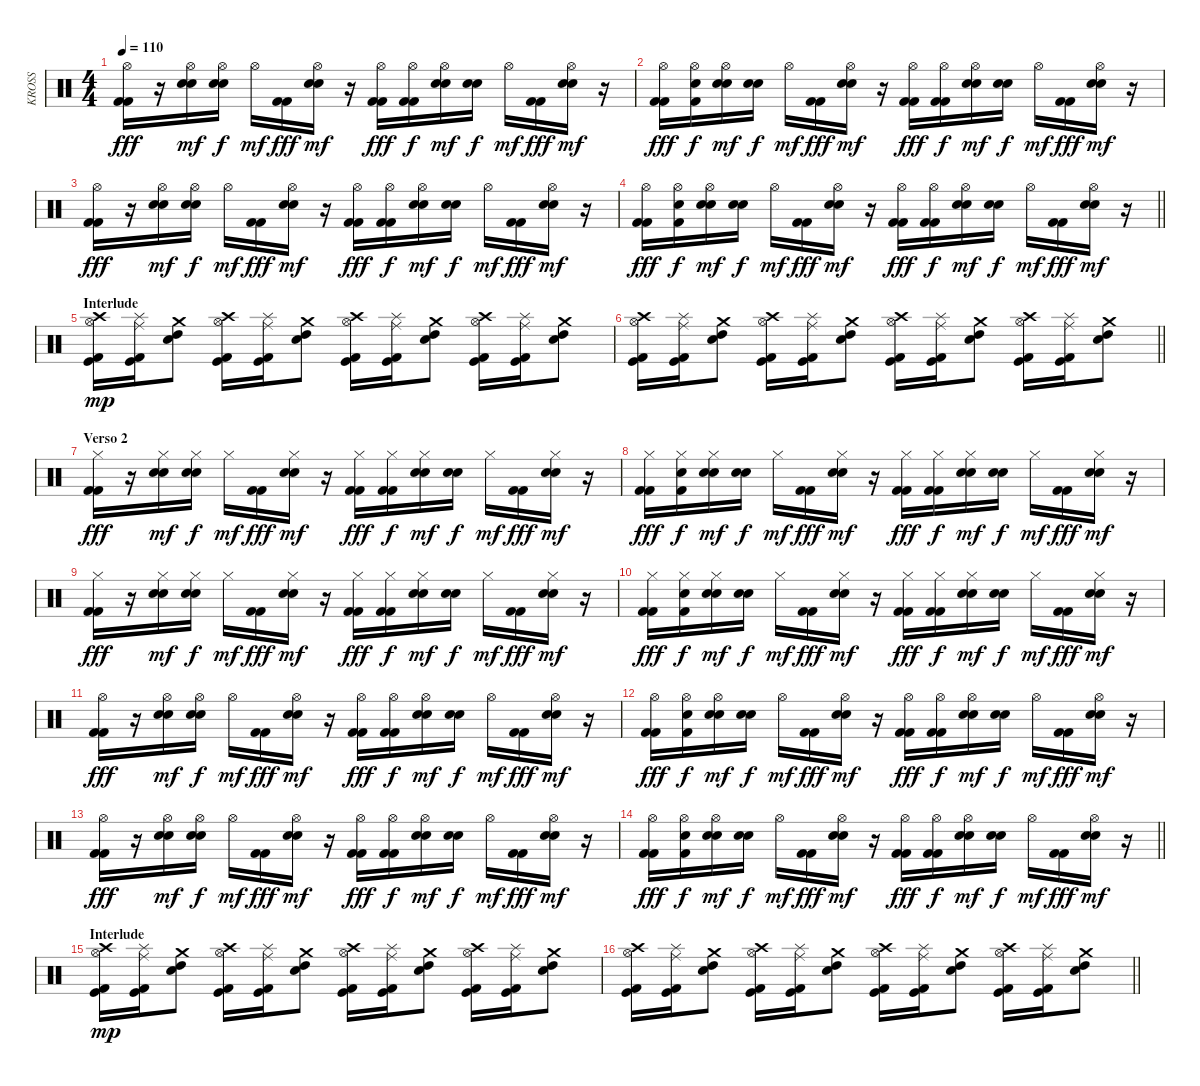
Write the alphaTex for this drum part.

\track ("KROSS" "KROSS") {instrument percussion}
\staff {score}
\articulation defaults
\ts (4 4)
\tempo 110
\clef neutral
\ks c
("Hi-Hat (open)" "Kick (hit) 2" "Kick (hit) 2").16{dy fff} r.16 ("Hi-Hat (open)" "Snare (hit) 2" "Snare (hit) 2").16{dy mf} ("Hi-Hat (open)" "Snare (hit) 2" "Snare (hit) 2").16{dy f} "Hi-Hat (open)".16{dy mf} ("Kick (hit) 2" "Kick (hit) 2").16{dy fff} ("Hi-Hat (open)" "Snare (hit) 2" "Snare (hit) 2").16{dy mf} r.16 ("Hi-Hat (open)" "Kick (hit) 2" "Kick (hit) 2").16{dy fff} ("Hi-Hat (open)" "Kick (hit) 2" "Kick (hit) 2").16{dy f} ("Hi-Hat (open)" "Snare (hit) 2" "Snare (hit) 2").16{dy mf} ("Snare (hit) 2" "Snare (hit) 2").16{dy f} "Hi-Hat (open)".16{dy mf} ("Kick (hit) 2" "Kick (hit) 2").16{dy fff} ("Hi-Hat (open)" "Snare (hit) 2" "Snare (hit) 2").16{dy mf} r.16 |
("Hi-Hat (open)" "Kick (hit) 2" "Kick (hit) 2").16{dy fff} ("Hi-Hat (open)" "Kick (hit) 2" "Electric Snare (hit)").16{dy f} ("Hi-Hat (open)" "Snare (hit) 2" "Snare (hit) 2").16{dy mf} ("Snare (hit) 2" "Snare (hit) 2").16{dy f} "Hi-Hat (open)".16{dy mf} ("Kick (hit) 2" "Kick (hit) 2").16{dy fff} ("Hi-Hat (open)" "Snare (hit) 2" "Snare (hit) 2").16{dy mf} r.16 ("Hi-Hat (open)" "Kick (hit) 2" "Kick (hit) 2").16{dy fff} ("Hi-Hat (open)" "Kick (hit) 2" "Kick (hit) 2").16{dy f} ("Hi-Hat (open)" "Snare (hit) 2" "Snare (hit) 2").16{dy mf} ("Snare (hit) 2" "Snare (hit) 2").16{dy f} "Hi-Hat (open)".16{dy mf} ("Kick (hit) 2" "Kick (hit) 2").16{dy fff} ("Hi-Hat (open)" "Snare (hit) 2" "Snare (hit) 2").16{dy mf} r.16 |
("Hi-Hat (open)" "Kick (hit) 2" "Kick (hit) 2").16{dy fff} r.16 ("Hi-Hat (open)" "Snare (hit) 2" "Snare (hit) 2").16{dy mf} ("Hi-Hat (open)" "Snare (hit) 2" "Snare (hit) 2").16{dy f} "Hi-Hat (open)".16{dy mf} ("Kick (hit) 2" "Kick (hit) 2").16{dy fff} ("Hi-Hat (open)" "Snare (hit) 2" "Snare (hit) 2").16{dy mf} r.16 ("Hi-Hat (open)" "Kick (hit) 2" "Kick (hit) 2").16{dy fff} ("Hi-Hat (open)" "Kick (hit) 2" "Kick (hit) 2").16{dy f} ("Hi-Hat (open)" "Snare (hit) 2" "Snare (hit) 2").16{dy mf} ("Snare (hit) 2" "Snare (hit) 2").16{dy f} "Hi-Hat (open)".16{dy mf} ("Kick (hit) 2" "Kick (hit) 2").16{dy fff} ("Hi-Hat (open)" "Snare (hit) 2" "Snare (hit) 2").16{dy mf} r.16 |
\barLineRight lightlight
("Hi-Hat (open)" "Kick (hit) 2" "Kick (hit) 2").16{dy fff} ("Hi-Hat (open)" "Kick (hit) 2" "Electric Snare (hit)").16{dy f} ("Hi-Hat (open)" "Snare (hit) 2" "Snare (hit) 2").16{dy mf} ("Snare (hit) 2" "Snare (hit) 2").16{dy f} "Hi-Hat (open)".16{dy mf} ("Kick (hit) 2" "Kick (hit) 2").16{dy fff} ("Hi-Hat (open)" "Snare (hit) 2" "Snare (hit) 2").16{dy mf} r.16 ("Hi-Hat (open)" "Kick (hit) 2" "Kick (hit) 2").16{dy fff} ("Hi-Hat (open)" "Kick (hit) 2" "Kick (hit) 2").16{dy f} ("Hi-Hat (open)" "Snare (hit) 2" "Snare (hit) 2").16{dy mf} ("Snare (hit) 2" "Snare (hit) 2").16{dy f} "Hi-Hat (open)".16{dy mf} ("Kick (hit) 2" "Kick (hit) 2").16{dy fff} ("Hi-Hat (open)" "Snare (hit) 2" "Snare (hit) 2").16{dy mf} r.16 |
\section ("" "Interlude")
("Crash high (hit)" "Hi-Hat (open)" "Kick (hit) 2" "Kick (hit)").16{dy mp} ("Ride (middle)" "Splash (hit)" "Kick (hit) 2" "Kick (hit)").16 ("Crash medium (hit)" "Electric Snare (hit)" "High Tom (hit)").8 ("Crash high (hit)" "Hi-Hat (open)" "Kick (hit) 2" "Kick (hit)").16 ("Ride (middle)" "Splash (hit)" "Kick (hit) 2" "Kick (hit)").16 ("Crash medium (hit)" "Electric Snare (hit)" "High Tom (hit)").8 ("Crash high (hit)" "Hi-Hat (open)" "Kick (hit) 2" "Kick (hit)").16 ("Ride (middle)" "Splash (hit)" "Kick (hit) 2" "Kick (hit)").16 ("Crash medium (hit)" "Electric Snare (hit)" "High Tom (hit)").8 ("Crash high (hit)" "Hi-Hat (open)" "Kick (hit) 2" "Kick (hit)").16 ("Ride (middle)" "Splash (hit)" "Kick (hit) 2" "Kick (hit)").16 ("Crash medium (hit)" "Electric Snare (hit)" "High Tom (hit)").8 |
\barLineRight lightlight
("Crash high (hit)" "Hi-Hat (open)" "Kick (hit) 2" "Kick (hit)").16 ("Ride (middle)" "Splash (hit)" "Kick (hit) 2" "Kick (hit)").16 ("Crash medium (hit)" "Electric Snare (hit)" "High Tom (hit)").8 ("Crash high (hit)" "Hi-Hat (open)" "Kick (hit) 2" "Kick (hit)").16 ("Ride (middle)" "Splash (hit)" "Kick (hit) 2" "Kick (hit)").16 ("Crash medium (hit)" "Electric Snare (hit)" "High Tom (hit)").8 ("Crash high (hit)" "Hi-Hat (open)" "Kick (hit) 2" "Kick (hit)").16 ("Ride (middle)" "Splash (hit)" "Kick (hit) 2" "Kick (hit)").16 ("Crash medium (hit)" "Electric Snare (hit)" "High Tom (hit)").8 ("Crash high (hit)" "Hi-Hat (open)" "Kick (hit) 2" "Kick (hit)").16 ("Ride (middle)" "Splash (hit)" "Kick (hit) 2" "Kick (hit)").16 ("Crash medium (hit)" "Electric Snare (hit)" "High Tom (hit)").8 |
\section ("" "Verso 2")
("Hi-Hat (closed)" "Kick (hit) 2" "Kick (hit) 2").16{dy fff} r.16 ("Hi-Hat (closed)" "Snare (hit) 2" "Snare (hit) 2").16{dy mf} ("Hi-Hat (closed)" "Snare (hit) 2" "Snare (hit) 2").16{dy f} "Hi-Hat (closed)".16{dy mf} ("Kick (hit) 2" "Kick (hit) 2").16{dy fff} ("Hi-Hat (closed)" "Snare (hit) 2" "Snare (hit) 2").16{dy mf} r.16 ("Hi-Hat (closed)" "Kick (hit) 2" "Kick (hit) 2").16{dy fff} ("Hi-Hat (closed)" "Kick (hit) 2" "Kick (hit) 2").16{dy f} ("Hi-Hat (closed)" "Snare (hit) 2" "Snare (hit) 2").16{dy mf} ("Snare (hit) 2" "Snare (hit) 2").16{dy f} "Hi-Hat (closed)".16{dy mf} ("Kick (hit) 2" "Kick (hit) 2").16{dy fff} ("Hi-Hat (closed)" "Snare (hit) 2" "Snare (hit) 2").16{dy mf} r.16 |
("Hi-Hat (closed)" "Kick (hit) 2" "Kick (hit) 2").16{dy fff} ("Hi-Hat (closed)" "Kick (hit) 2" "Electric Snare (hit)").16{dy f} ("Hi-Hat (closed)" "Snare (hit) 2" "Snare (hit) 2").16{dy mf} ("Snare (hit) 2" "Snare (hit) 2").16{dy f} "Hi-Hat (closed)".16{dy mf} ("Kick (hit) 2" "Kick (hit) 2").16{dy fff} ("Hi-Hat (closed)" "Snare (hit) 2" "Snare (hit) 2").16{dy mf} r.16 ("Hi-Hat (closed)" "Kick (hit) 2" "Kick (hit) 2").16{dy fff} ("Hi-Hat (closed)" "Kick (hit) 2" "Kick (hit) 2").16{dy f} ("Hi-Hat (closed)" "Snare (hit) 2" "Snare (hit) 2").16{dy mf} ("Snare (hit) 2" "Snare (hit) 2").16{dy f} "Hi-Hat (closed)".16{dy mf} ("Kick (hit) 2" "Kick (hit) 2").16{dy fff} ("Hi-Hat (closed)" "Snare (hit) 2" "Snare (hit) 2").16{dy mf} r.16 |
("Hi-Hat (closed)" "Kick (hit) 2" "Kick (hit) 2").16{dy fff} r.16 ("Hi-Hat (closed)" "Snare (hit) 2" "Snare (hit) 2").16{dy mf} ("Hi-Hat (closed)" "Snare (hit) 2" "Snare (hit) 2").16{dy f} "Hi-Hat (closed)".16{dy mf} ("Kick (hit) 2" "Kick (hit) 2").16{dy fff} ("Hi-Hat (closed)" "Snare (hit) 2" "Snare (hit) 2").16{dy mf} r.16 ("Hi-Hat (closed)" "Kick (hit) 2" "Kick (hit) 2").16{dy fff} ("Hi-Hat (closed)" "Kick (hit) 2" "Kick (hit) 2").16{dy f} ("Hi-Hat (closed)" "Snare (hit) 2" "Snare (hit) 2").16{dy mf} ("Snare (hit) 2" "Snare (hit) 2").16{dy f} "Hi-Hat (closed)".16{dy mf} ("Kick (hit) 2" "Kick (hit) 2").16{dy fff} ("Hi-Hat (closed)" "Snare (hit) 2" "Snare (hit) 2").16{dy mf} r.16 |
("Hi-Hat (closed)" "Kick (hit) 2" "Kick (hit) 2").16{dy fff} ("Hi-Hat (closed)" "Kick (hit) 2" "Electric Snare (hit)").16{dy f} ("Hi-Hat (closed)" "Snare (hit) 2" "Snare (hit) 2").16{dy mf} ("Snare (hit) 2" "Snare (hit) 2").16{dy f} "Hi-Hat (closed)".16{dy mf} ("Kick (hit) 2" "Kick (hit) 2").16{dy fff} ("Hi-Hat (closed)" "Snare (hit) 2" "Snare (hit) 2").16{dy mf} r.16 ("Hi-Hat (closed)" "Kick (hit) 2" "Kick (hit) 2").16{dy fff} ("Hi-Hat (closed)" "Kick (hit) 2" "Kick (hit) 2").16{dy f} ("Hi-Hat (closed)" "Snare (hit) 2" "Snare (hit) 2").16{dy mf} ("Snare (hit) 2" "Snare (hit) 2").16{dy f} "Hi-Hat (closed)".16{dy mf} ("Kick (hit) 2" "Kick (hit) 2").16{dy fff} ("Hi-Hat (closed)" "Snare (hit) 2" "Snare (hit) 2").16{dy mf} r.16 |
("Hi-Hat (open)" "Kick (hit) 2" "Kick (hit) 2").16{dy fff} r.16 ("Hi-Hat (open)" "Snare (hit) 2" "Snare (hit) 2").16{dy mf} ("Hi-Hat (open)" "Snare (hit) 2" "Snare (hit) 2").16{dy f} "Hi-Hat (open)".16{dy mf} ("Kick (hit) 2" "Kick (hit) 2").16{dy fff} ("Hi-Hat (open)" "Snare (hit) 2" "Snare (hit) 2").16{dy mf} r.16 ("Hi-Hat (open)" "Kick (hit) 2" "Kick (hit) 2").16{dy fff} ("Hi-Hat (open)" "Kick (hit) 2" "Kick (hit) 2").16{dy f} ("Hi-Hat (open)" "Snare (hit) 2" "Snare (hit) 2").16{dy mf} ("Snare (hit) 2" "Snare (hit) 2").16{dy f} "Hi-Hat (open)".16{dy mf} ("Kick (hit) 2" "Kick (hit) 2").16{dy fff} ("Hi-Hat (open)" "Snare (hit) 2" "Snare (hit) 2").16{dy mf} r.16 |
("Hi-Hat (open)" "Kick (hit) 2" "Kick (hit) 2").16{dy fff} ("Hi-Hat (open)" "Kick (hit) 2" "Electric Snare (hit)").16{dy f} ("Hi-Hat (open)" "Snare (hit) 2" "Snare (hit) 2").16{dy mf} ("Snare (hit) 2" "Snare (hit) 2").16{dy f} "Hi-Hat (open)".16{dy mf} ("Kick (hit) 2" "Kick (hit) 2").16{dy fff} ("Hi-Hat (open)" "Snare (hit) 2" "Snare (hit) 2").16{dy mf} r.16 ("Hi-Hat (open)" "Kick (hit) 2" "Kick (hit) 2").16{dy fff} ("Hi-Hat (open)" "Kick (hit) 2" "Kick (hit) 2").16{dy f} ("Hi-Hat (open)" "Snare (hit) 2" "Snare (hit) 2").16{dy mf} ("Snare (hit) 2" "Snare (hit) 2").16{dy f} "Hi-Hat (open)".16{dy mf} ("Kick (hit) 2" "Kick (hit) 2").16{dy fff} ("Hi-Hat (open)" "Snare (hit) 2" "Snare (hit) 2").16{dy mf} r.16 |
("Hi-Hat (open)" "Kick (hit) 2" "Kick (hit) 2").16{dy fff} r.16 ("Hi-Hat (open)" "Snare (hit) 2" "Snare (hit) 2").16{dy mf} ("Hi-Hat (open)" "Snare (hit) 2" "Snare (hit) 2").16{dy f} "Hi-Hat (open)".16{dy mf} ("Kick (hit) 2" "Kick (hit) 2").16{dy fff} ("Hi-Hat (open)" "Snare (hit) 2" "Snare (hit) 2").16{dy mf} r.16 ("Hi-Hat (open)" "Kick (hit) 2" "Kick (hit) 2").16{dy fff} ("Hi-Hat (open)" "Kick (hit) 2" "Kick (hit) 2").16{dy f} ("Hi-Hat (open)" "Snare (hit) 2" "Snare (hit) 2").16{dy mf} ("Snare (hit) 2" "Snare (hit) 2").16{dy f} "Hi-Hat (open)".16{dy mf} ("Kick (hit) 2" "Kick (hit) 2").16{dy fff} ("Hi-Hat (open)" "Snare (hit) 2" "Snare (hit) 2").16{dy mf} r.16 |
\barLineRight lightlight
("Hi-Hat (open)" "Kick (hit) 2" "Kick (hit) 2").16{dy fff} ("Hi-Hat (open)" "Kick (hit) 2" "Electric Snare (hit)").16{dy f} ("Hi-Hat (open)" "Snare (hit) 2" "Snare (hit) 2").16{dy mf} ("Snare (hit) 2" "Snare (hit) 2").16{dy f} "Hi-Hat (open)".16{dy mf} ("Kick (hit) 2" "Kick (hit) 2").16{dy fff} ("Hi-Hat (open)" "Snare (hit) 2" "Snare (hit) 2").16{dy mf} r.16 ("Hi-Hat (open)" "Kick (hit) 2" "Kick (hit) 2").16{dy fff} ("Hi-Hat (open)" "Kick (hit) 2" "Kick (hit) 2").16{dy f} ("Hi-Hat (open)" "Snare (hit) 2" "Snare (hit) 2").16{dy mf} ("Snare (hit) 2" "Snare (hit) 2").16{dy f} "Hi-Hat (open)".16{dy mf} ("Kick (hit) 2" "Kick (hit) 2").16{dy fff} ("Hi-Hat (open)" "Snare (hit) 2" "Snare (hit) 2").16{dy mf} r.16 |
\section ("" "Interlude")
("Crash high (hit)" "Hi-Hat (open)" "Kick (hit) 2" "Kick (hit)").16{dy mp} ("Ride (middle)" "Splash (hit)" "Kick (hit) 2" "Kick (hit)").16 ("Crash medium (hit)" "Electric Snare (hit)" "High Tom (hit)").8 ("Crash high (hit)" "Hi-Hat (open)" "Kick (hit) 2" "Kick (hit)").16 ("Ride (middle)" "Splash (hit)" "Kick (hit) 2" "Kick (hit)").16 ("Crash medium (hit)" "Electric Snare (hit)" "High Tom (hit)").8 ("Crash high (hit)" "Hi-Hat (open)" "Kick (hit) 2" "Kick (hit)").16 ("Ride (middle)" "Splash (hit)" "Kick (hit) 2" "Kick (hit)").16 ("Crash medium (hit)" "Electric Snare (hit)" "High Tom (hit)").8 ("Crash high (hit)" "Hi-Hat (open)" "Kick (hit) 2" "Kick (hit)").16 ("Ride (middle)" "Splash (hit)" "Kick (hit) 2" "Kick (hit)").16 ("Crash medium (hit)" "Electric Snare (hit)" "High Tom (hit)").8 |
\barLineRight lightlight
("Crash high (hit)" "Hi-Hat (open)" "Kick (hit) 2" "Kick (hit)").16 ("Ride (middle)" "Splash (hit)" "Kick (hit) 2" "Kick (hit)").16 ("Crash medium (hit)" "Electric Snare (hit)" "High Tom (hit)").8 ("Crash high (hit)" "Hi-Hat (open)" "Kick (hit) 2" "Kick (hit)").16 ("Ride (middle)" "Splash (hit)" "Kick (hit) 2" "Kick (hit)").16 ("Crash medium (hit)" "Electric Snare (hit)" "High Tom (hit)").8 ("Crash high (hit)" "Hi-Hat (open)" "Kick (hit) 2" "Kick (hit)").16 ("Ride (middle)" "Splash (hit)" "Kick (hit) 2" "Kick (hit)").16 ("Crash medium (hit)" "Electric Snare (hit)" "High Tom (hit)").8 ("Crash high (hit)" "Hi-Hat (open)" "Kick (hit) 2" "Kick (hit)").16 ("Ride (middle)" "Splash (hit)" "Kick (hit) 2" "Kick (hit)").16 ("Crash medium (hit)" "Electric Snare (hit)" "High Tom (hit)").8
